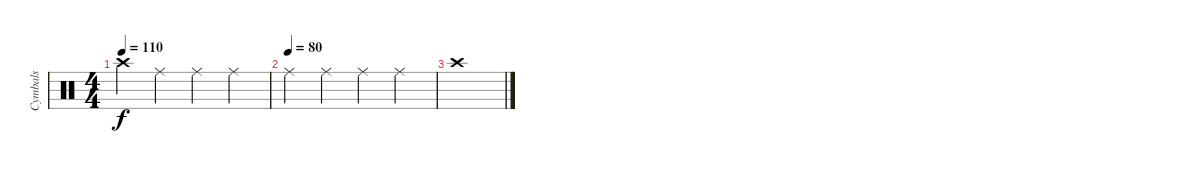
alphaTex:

\track ("Cymbals" "Cymbals") {instrument percussion}
\staff {score}
\articulation defaults
\ts (4 4)
\tempo 110
\clef neutral
\ks c "Crash high (hit)".4{dy f} "Ride (middle)".4 "Ride (middle)".4 "Ride (middle)".4
|
\tempo (80)
"Ride (middle)".4 "Ride (middle)".4 "Ride (middle)".4 "Ride (middle)".4 |
"Crash high (hit)".1
